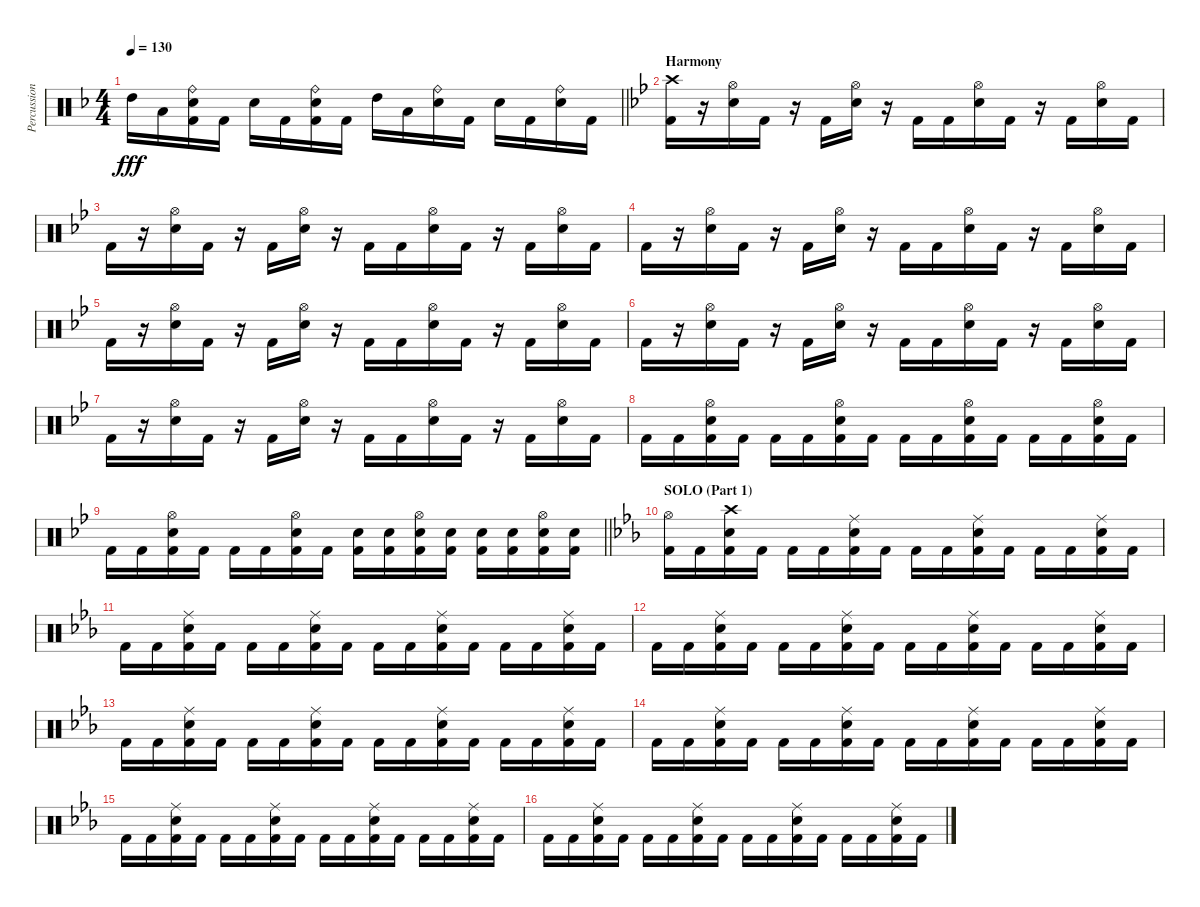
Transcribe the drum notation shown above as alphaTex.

\track ("Percussion" "Percussion") {instrument percussion}
\staff {score}
\articulation defaults
\ts (4 4)
\tempo 130
\clef neutral
\barLineRight lightlight
\ks dminor "High Tom (hit)".16{dy fff} "Low Tom (hit)".16
("Ride (bell)" "Electric Snare (hit)" "Kick (hit) 2").16 "Kick (hit) 2".16 "Electric Snare (hit)".16 "Kick (hit) 2".16 ("Ride (bell)" "Electric Snare (hit)" "Kick (hit) 2").16 "Kick (hit) 2".16 "High Tom (hit)".16 "Low Tom (hit)".16 ("Ride (bell)" "Electric Snare (hit)").16 "Kick (hit) 2".16 "Electric Snare (hit)".16 "Kick (hit) 2".16 ("Ride (bell)" "Electric Snare (hit)").16 "Kick (hit) 2".16 |
\section ("" "Harmony")
\ks gminor
("Crash high (hit)" "Kick (hit) 2").16 r.16 ("Hi-Hat (open)" "Electric Snare (hit)").16 "Kick (hit) 2".16 r.16 "Kick (hit) 2".16 ("Hi-Hat (open)" "Electric Snare (hit)").16 r.16 "Kick (hit) 2".16 "Kick (hit) 2".16 ("Hi-Hat (open)" "Electric Snare (hit)").16 "Kick (hit) 2".16 r.16 "Kick (hit) 2".16 ("Hi-Hat (open)" "Electric Snare (hit)").16 "Kick (hit) 2".16 |
"Kick (hit) 2".16 r.16 ("Hi-Hat (open)" "Electric Snare (hit)").16 "Kick (hit) 2".16 r.16 "Kick (hit) 2".16 ("Hi-Hat (open)" "Electric Snare (hit)").16 r.16 "Kick (hit) 2".16 "Kick (hit) 2".16 ("Hi-Hat (open)" "Electric Snare (hit)").16 "Kick (hit) 2".16 r.16 "Kick (hit) 2".16 ("Hi-Hat (open)" "Electric Snare (hit)").16 "Kick (hit) 2".16 |
"Kick (hit) 2".16 r.16 ("Hi-Hat (open)" "Electric Snare (hit)").16 "Kick (hit) 2".16 r.16 "Kick (hit) 2".16 ("Hi-Hat (open)" "Electric Snare (hit)").16 r.16 "Kick (hit) 2".16 "Kick (hit) 2".16 ("Hi-Hat (open)" "Electric Snare (hit)").16 "Kick (hit) 2".16 r.16 "Kick (hit) 2".16 ("Hi-Hat (open)" "Electric Snare (hit)").16 "Kick (hit) 2".16 |
"Kick (hit) 2".16 r.16 ("Hi-Hat (open)" "Electric Snare (hit)").16 "Kick (hit) 2".16 r.16 "Kick (hit) 2".16 ("Hi-Hat (open)" "Electric Snare (hit)").16 r.16 "Kick (hit) 2".16 "Kick (hit) 2".16 ("Hi-Hat (open)" "Electric Snare (hit)").16 "Kick (hit) 2".16 r.16 "Kick (hit) 2".16 ("Hi-Hat (open)" "Electric Snare (hit)").16 "Kick (hit) 2".16 |
"Kick (hit) 2".16 r.16 ("Hi-Hat (open)" "Electric Snare (hit)").16 "Kick (hit) 2".16 r.16 "Kick (hit) 2".16 ("Hi-Hat (open)" "Electric Snare (hit)").16 r.16 "Kick (hit) 2".16 "Kick (hit) 2".16 ("Hi-Hat (open)" "Electric Snare (hit)").16 "Kick (hit) 2".16 r.16 "Kick (hit) 2".16 ("Hi-Hat (open)" "Electric Snare (hit)").16 "Kick (hit) 2".16 |
"Kick (hit) 2".16 r.16 ("Hi-Hat (open)" "Electric Snare (hit)").16 "Kick (hit) 2".16 r.16 "Kick (hit) 2".16 ("Hi-Hat (open)" "Electric Snare (hit)").16 r.16 "Kick (hit) 2".16 "Kick (hit) 2".16 ("Hi-Hat (open)" "Electric Snare (hit)").16 "Kick (hit) 2".16 r.16 "Kick (hit) 2".16 ("Hi-Hat (open)" "Electric Snare (hit)").16 "Kick (hit) 2".16 |
"Kick (hit) 2".16 "Kick (hit) 2".16 ("Hi-Hat (open)" "Electric Snare (hit)" "Kick (hit) 2").16 "Kick (hit) 2".16 "Kick (hit) 2".16 "Kick (hit) 2".16 ("Hi-Hat (open)" "Electric Snare (hit)" "Kick (hit) 2").16 "Kick (hit) 2".16 "Kick (hit) 2".16 "Kick (hit) 2".16 ("Hi-Hat (open)" "Electric Snare (hit)" "Kick (hit) 2").16 "Kick (hit) 2".16 "Kick (hit) 2".16 "Kick (hit) 2".16 ("Hi-Hat (open)" "Electric Snare (hit)" "Kick (hit) 2").16 "Kick (hit) 2".16 |
\barLineRight lightlight "Kick (hit) 2".16 "Kick (hit) 2".16
("Hi-Hat (open)" "Electric Snare (hit)" "Kick (hit) 2").16 "Kick (hit) 2".16 "Kick (hit) 2".16 "Kick (hit) 2".16 ("Hi-Hat (open)" "Electric Snare (hit)" "Kick (hit) 2").16 "Kick (hit) 2".16 ("Electric Snare (hit)" "Kick (hit) 2").16 ("Electric Snare (hit)" "Kick (hit) 2").16 ("Hi-Hat (open)" "Electric Snare (hit)" "Kick (hit) 2").16 ("Electric Snare (hit)" "Kick (hit) 2").16 ("Electric Snare (hit)" "Kick (hit) 2").16 ("Electric Snare (hit)" "Kick (hit) 2").16 ("Hi-Hat (open)" "Electric Snare (hit)" "Kick (hit) 2").16 ("Electric Snare (hit)" "Kick (hit) 2").16 |
\section ("" "SOLO (Part 1)")
\ks cminor
("Hi-Hat (open)" "Kick (hit) 2").16 "Kick (hit) 2".16 ("Crash high (hit)" "Electric Snare (hit)" "Kick (hit) 2").16 "Kick (hit) 2".16 "Kick (hit) 2".16 "Kick (hit) 2".16 ("Ride (middle)" "Electric Snare (hit)" "Kick (hit) 2").16 "Kick (hit) 2".16 "Kick (hit) 2".16 "Kick (hit) 2".16 ("Ride (middle)" "Electric Snare (hit)" "Kick (hit) 2").16 "Kick (hit) 2".16 "Kick (hit) 2".16 "Kick (hit) 2".16 ("Ride (middle)" "Electric Snare (hit)" "Kick (hit) 2").16 "Kick (hit) 2".16 |
"Kick (hit) 2".16 "Kick (hit) 2".16 ("Ride (middle)" "Electric Snare (hit)" "Kick (hit) 2").16 "Kick (hit) 2".16 "Kick (hit) 2".16 "Kick (hit) 2".16 ("Ride (middle)" "Electric Snare (hit)" "Kick (hit) 2").16 "Kick (hit) 2".16 "Kick (hit) 2".16 "Kick (hit) 2".16 ("Ride (middle)" "Electric Snare (hit)" "Kick (hit) 2").16 "Kick (hit) 2".16 "Kick (hit) 2".16 "Kick (hit) 2".16 ("Ride (middle)" "Electric Snare (hit)" "Kick (hit) 2").16 "Kick (hit) 2".16 |
"Kick (hit) 2".16 "Kick (hit) 2".16 ("Ride (middle)" "Electric Snare (hit)" "Kick (hit) 2").16 "Kick (hit) 2".16 "Kick (hit) 2".16 "Kick (hit) 2".16 ("Ride (middle)" "Electric Snare (hit)" "Kick (hit) 2").16 "Kick (hit) 2".16 "Kick (hit) 2".16 "Kick (hit) 2".16 ("Ride (middle)" "Electric Snare (hit)" "Kick (hit) 2").16 "Kick (hit) 2".16 "Kick (hit) 2".16 "Kick (hit) 2".16 ("Ride (middle)" "Electric Snare (hit)" "Kick (hit) 2").16 "Kick (hit) 2".16 |
"Kick (hit) 2".16 "Kick (hit) 2".16 ("Ride (middle)" "Electric Snare (hit)" "Kick (hit) 2").16 "Kick (hit) 2".16 "Kick (hit) 2".16 "Kick (hit) 2".16 ("Ride (middle)" "Electric Snare (hit)" "Kick (hit) 2").16 "Kick (hit) 2".16 "Kick (hit) 2".16 "Kick (hit) 2".16 ("Ride (middle)" "Electric Snare (hit)" "Kick (hit) 2").16 "Kick (hit) 2".16 "Kick (hit) 2".16 "Kick (hit) 2".16 ("Ride (middle)" "Electric Snare (hit)" "Kick (hit) 2").16 "Kick (hit) 2".16 |
"Kick (hit) 2".16 "Kick (hit) 2".16 ("Ride (middle)" "Electric Snare (hit)" "Kick (hit) 2").16 "Kick (hit) 2".16 "Kick (hit) 2".16 "Kick (hit) 2".16 ("Ride (middle)" "Electric Snare (hit)" "Kick (hit) 2").16 "Kick (hit) 2".16 "Kick (hit) 2".16 "Kick (hit) 2".16 ("Ride (middle)" "Electric Snare (hit)" "Kick (hit) 2").16 "Kick (hit) 2".16 "Kick (hit) 2".16 "Kick (hit) 2".16 ("Ride (middle)" "Electric Snare (hit)" "Kick (hit) 2").16 "Kick (hit) 2".16 |
"Kick (hit) 2".16 "Kick (hit) 2".16 ("Ride (middle)" "Electric Snare (hit)" "Kick (hit) 2").16 "Kick (hit) 2".16 "Kick (hit) 2".16 "Kick (hit) 2".16 ("Ride (middle)" "Electric Snare (hit)" "Kick (hit) 2").16 "Kick (hit) 2".16 "Kick (hit) 2".16 "Kick (hit) 2".16 ("Ride (middle)" "Electric Snare (hit)" "Kick (hit) 2").16 "Kick (hit) 2".16 "Kick (hit) 2".16 "Kick (hit) 2".16 ("Ride (middle)" "Electric Snare (hit)" "Kick (hit) 2").16 "Kick (hit) 2".16 |
"Kick (hit) 2".16 "Kick (hit) 2".16 ("Ride (middle)" "Electric Snare (hit)" "Kick (hit) 2").16 "Kick (hit) 2".16 "Kick (hit) 2".16 "Kick (hit) 2".16 ("Ride (middle)" "Electric Snare (hit)" "Kick (hit) 2").16 "Kick (hit) 2".16 "Kick (hit) 2".16 "Kick (hit) 2".16 ("Ride (middle)" "Electric Snare (hit)" "Kick (hit) 2").16 "Kick (hit) 2".16 "Kick (hit) 2".16 "Kick (hit) 2".16 ("Ride (middle)" "Electric Snare (hit)" "Kick (hit) 2").16 "Kick (hit) 2".16
